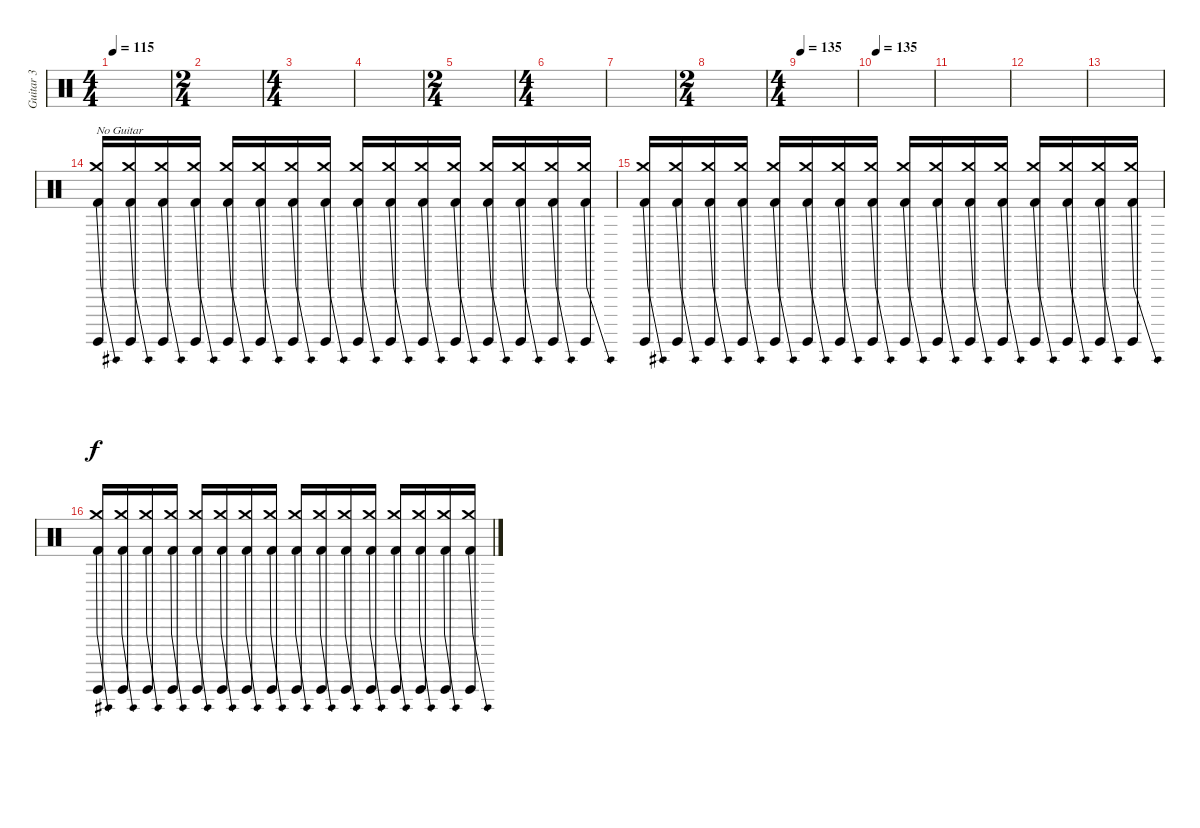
\track ("Guitar 3" "Guitar 3") {instrument percussion}
\staff {score}
\articulation defaults
\ts (4 4)
\tempo 115
\clef neutral
\ks c
|
\ts (2 4)
|
\ts (4 4)
|
|
\ts (2 4)
|
\ts (4 4)
|
|
\ts (2 4)
|
\ts (4 4)
\tempo 135
|
\tempo 135
|
|
|
|
("Kick (hit) 2"{be (bend 0 0 60 12)} "Crash medium (hit)" "Guiro (hit)").16{txt "No Guitar" volume 5 balance 8} ("Kick (hit) 2"{be (bend 0 0 60 12)} "Crash medium (hit)" "Guiro (hit)").16 ("Kick (hit) 2"{be (bend 0 0 60 12)} "Crash medium (hit)" "Guiro (hit)").16 ("Kick (hit) 2"{be (bend 0 0 60 12)} "Crash medium (hit)" "Guiro (hit)").16 ("Kick (hit) 2"{be (bend 0 0 60 12)} "Crash medium (hit)" "Guiro (hit)").16 ("Kick (hit) 2"{be (bend 0 0 60 12)} "Crash medium (hit)" "Guiro (hit)").16 ("Kick (hit) 2"{be (bend 0 0 60 12)} "Crash medium (hit)" "Guiro (hit)").16 ("Kick (hit) 2"{be (bend 0 0 60 12)} "Crash medium (hit)" "Guiro (hit)").16 ("Kick (hit) 2"{be (bend 0 0 60 12)} "Crash medium (hit)" "Guiro (hit)").16 ("Kick (hit) 2"{be (bend 0 0 60 12)} "Crash medium (hit)" "Guiro (hit)").16 ("Kick (hit) 2"{be (bend 0 0 60 12)} "Crash medium (hit)" "Guiro (hit)").16 ("Kick (hit) 2"{be (bend 0 0 60 12)} "Crash medium (hit)" "Guiro (hit)").16 ("Kick (hit) 2"{be (bend 0 0 60 12)} "Crash medium (hit)" "Guiro (hit)").16 ("Kick (hit) 2"{be (bend 0 0 60 12)} "Crash medium (hit)" "Guiro (hit)").16 ("Kick (hit) 2"{be (bend 0 0 60 12)} "Crash medium (hit)" "Guiro (hit)").16 ("Kick (hit) 2"{be (bend 0 0 60 12)} "Crash medium (hit)" "Guiro (hit)").16 |
("Kick (hit) 2"{be (bend 0 0 60 12)} "Crash medium (hit)" "Guiro (hit)").16 ("Kick (hit) 2"{be (bend 0 0 60 12)} "Crash medium (hit)" "Guiro (hit)").16 ("Kick (hit) 2"{be (bend 0 0 60 12)} "Crash medium (hit)" "Guiro (hit)").16 ("Kick (hit) 2"{be (bend 0 0 60 12)} "Crash medium (hit)" "Guiro (hit)").16 ("Kick (hit) 2"{be (bend 0 0 60 12)} "Crash medium (hit)" "Guiro (hit)").16 ("Kick (hit) 2"{be (bend 0 0 60 12)} "Crash medium (hit)" "Guiro (hit)").16 ("Kick (hit) 2"{be (bend 0 0 60 12)} "Crash medium (hit)" "Guiro (hit)").16 ("Kick (hit) 2"{be (bend 0 0 60 12)} "Crash medium (hit)" "Guiro (hit)").16 ("Kick (hit) 2"{be (bend 0 0 60 12)} "Crash medium (hit)" "Guiro (hit)").16 ("Kick (hit) 2"{be (bend 0 0 60 12)} "Crash medium (hit)" "Guiro (hit)").16 ("Kick (hit) 2"{be (bend 0 0 60 12)} "Crash medium (hit)" "Guiro (hit)").16 ("Kick (hit) 2"{be (bend 0 0 60 12)} "Crash medium (hit)" "Guiro (hit)").16 ("Kick (hit) 2"{be (bend 0 0 60 12)} "Crash medium (hit)" "Guiro (hit)").16 ("Kick (hit) 2"{be (bend 0 0 60 12)} "Crash medium (hit)" "Guiro (hit)").16 ("Kick (hit) 2"{be (bend 0 0 60 12)} "Crash medium (hit)" "Guiro (hit)").16 ("Kick (hit) 2"{be (bend 0 0 60 12)} "Crash medium (hit)" "Guiro (hit)").16 |
("Kick (hit) 2"{be (bend 0 0 60 12)} "Crash medium (hit)" "Guiro (hit)").16 ("Kick (hit) 2"{be (bend 0 0 60 12)} "Crash medium (hit)" "Guiro (hit)").16 ("Kick (hit) 2"{be (bend 0 0 60 12)} "Crash medium (hit)" "Guiro (hit)").16 ("Kick (hit) 2"{be (bend 0 0 60 12)} "Crash medium (hit)" "Guiro (hit)").16 ("Kick (hit) 2"{be (bend 0 0 60 12)} "Crash medium (hit)" "Guiro (hit)").16 ("Kick (hit) 2"{be (bend 0 0 60 12)} "Crash medium (hit)" "Guiro (hit)").16 ("Kick (hit) 2"{be (bend 0 0 60 12)} "Crash medium (hit)" "Guiro (hit)").16 ("Kick (hit) 2"{be (bend 0 0 60 12)} "Crash medium (hit)" "Guiro (hit)").16 ("Kick (hit) 2"{be (bend 0 0 60 12)} "Crash medium (hit)" "Guiro (hit)").16 ("Kick (hit) 2"{be (bend 0 0 60 12)} "Crash medium (hit)" "Guiro (hit)").16 ("Kick (hit) 2"{be (bend 0 0 60 12)} "Crash medium (hit)" "Guiro (hit)").16 ("Kick (hit) 2"{be (bend 0 0 60 12)} "Crash medium (hit)" "Guiro (hit)").16 ("Kick (hit) 2"{be (bend 0 0 60 12)} "Crash medium (hit)" "Guiro (hit)").16 ("Kick (hit) 2"{be (bend 0 0 60 12)} "Crash medium (hit)" "Guiro (hit)").16 ("Kick (hit) 2"{be (bend 0 0 60 12)} "Crash medium (hit)" "Guiro (hit)").16 ("Kick (hit) 2"{be (bend 0 0 60 12)} "Crash medium (hit)" "Guiro (hit)").16
